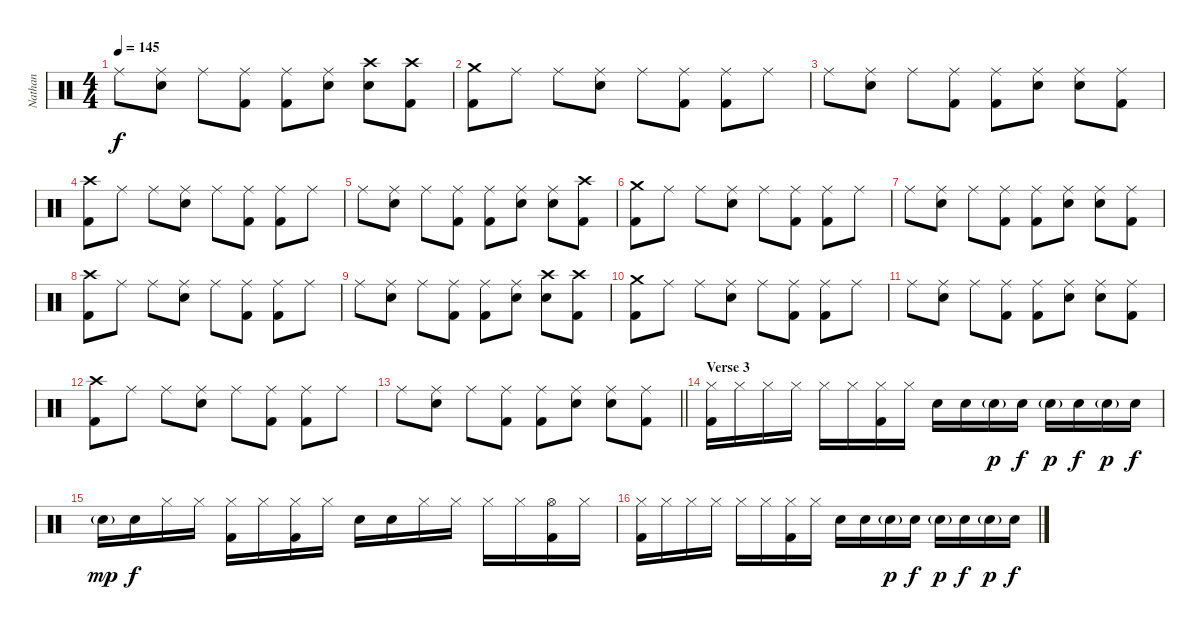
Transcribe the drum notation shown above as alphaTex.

\track ("Nathan" "Nathan") {instrument percussion}
\staff {score}
\articulation defaults
\ts (4 4)
\tempo 145
\clef neutral
\ks c "Ride (middle)".8{dy f}
("Ride (middle)" "Electric Snare (hit)").8 "Ride (middle)".8 ("Ride (middle)" "Kick (hit) 2").8 ("Ride (middle)" "Kick (hit) 2").8 ("Ride (middle)" "Electric Snare (hit)").8 ("Crash high (hit)" "Electric Snare (hit)").8 ("Crash high (hit)" "Kick (hit) 2").8 |
("Crash medium (hit)" "Kick (hit) 2").8 "Ride (middle)".8 "Ride (middle)".8 ("Ride (middle)" "Electric Snare (hit)").8 "Ride (middle)".8 ("Ride (middle)" "Kick (hit) 2").8 ("Ride (middle)" "Kick (hit) 2").8 "Ride (middle)".8 |
"Ride (middle)".8 ("Ride (middle)" "Electric Snare (hit)").8 "Ride (middle)".8 ("Ride (middle)" "Kick (hit) 2").8 ("Ride (middle)" "Kick (hit) 2").8 ("Ride (middle)" "Electric Snare (hit)").8 ("Ride (middle)" "Electric Snare (hit)").8 ("Ride (middle)" "Kick (hit) 2").8 |
("Crash high (hit)" "Kick (hit) 2").8 "Ride (middle)".8 "Ride (middle)".8 ("Ride (middle)" "Electric Snare (hit)").8 "Ride (middle)".8 ("Ride (middle)" "Kick (hit) 2").8 ("Ride (middle)" "Kick (hit) 2").8 "Ride (middle)".8 |
"Ride (middle)".8 ("Ride (middle)" "Electric Snare (hit)").8 "Ride (middle)".8 ("Ride (middle)" "Kick (hit) 2").8 ("Ride (middle)" "Kick (hit) 2").8 ("Ride (middle)" "Electric Snare (hit)").8 ("Ride (middle)" "Electric Snare (hit)").8 ("Crash high (hit)" "Kick (hit) 2").8 |
("Crash medium (hit)" "Kick (hit) 2").8 "Ride (middle)".8 "Ride (middle)".8 ("Ride (middle)" "Electric Snare (hit)").8 "Ride (middle)".8 ("Ride (middle)" "Kick (hit) 2").8 ("Ride (middle)" "Kick (hit) 2").8 "Ride (middle)".8 |
"Ride (middle)".8 ("Ride (middle)" "Electric Snare (hit)").8 "Ride (middle)".8 ("Ride (middle)" "Kick (hit) 2").8 ("Ride (middle)" "Kick (hit) 2").8 ("Ride (middle)" "Electric Snare (hit)").8 ("Ride (middle)" "Electric Snare (hit)").8 ("Ride (middle)" "Kick (hit) 2").8 |
("Crash high (hit)" "Kick (hit) 2").8 "Ride (middle)".8 "Ride (middle)".8 ("Ride (middle)" "Electric Snare (hit)").8 "Ride (middle)".8 ("Ride (middle)" "Kick (hit) 2").8 ("Ride (middle)" "Kick (hit) 2").8 "Ride (middle)".8 |
"Ride (middle)".8 ("Ride (middle)" "Electric Snare (hit)").8 "Ride (middle)".8 ("Ride (middle)" "Kick (hit) 2").8 ("Ride (middle)" "Kick (hit) 2").8 ("Ride (middle)" "Electric Snare (hit)").8 ("Crash high (hit)" "Electric Snare (hit)").8 ("Crash high (hit)" "Kick (hit) 2").8 |
("Crash medium (hit)" "Kick (hit) 2").8 "Ride (middle)".8 "Ride (middle)".8 ("Ride (middle)" "Electric Snare (hit)").8 "Ride (middle)".8 ("Ride (middle)" "Kick (hit) 2").8 ("Ride (middle)" "Kick (hit) 2").8 "Ride (middle)".8 |
"Ride (middle)".8 ("Ride (middle)" "Electric Snare (hit)").8 "Ride (middle)".8 ("Ride (middle)" "Kick (hit) 2").8 ("Ride (middle)" "Kick (hit) 2").8 ("Ride (middle)" "Electric Snare (hit)").8 ("Ride (middle)" "Electric Snare (hit)").8 ("Ride (middle)" "Kick (hit) 2").8 |
("Crash high (hit)" "Kick (hit) 2").8 "Ride (middle)".8 "Ride (middle)".8 ("Ride (middle)" "Electric Snare (hit)").8 "Ride (middle)".8 ("Ride (middle)" "Kick (hit) 2").8 ("Ride (middle)" "Kick (hit) 2").8 "Ride (middle)".8 |
\barLineRight lightlight "Ride (middle)".8
("Ride (middle)" "Electric Snare (hit)").8 "Ride (middle)".8 ("Ride (middle)" "Kick (hit) 2").8 ("Ride (middle)" "Kick (hit) 2").8 ("Ride (middle)" "Electric Snare (hit)").8 ("Ride (middle)" "Electric Snare (hit)").8 ("Ride (middle)" "Kick (hit) 2").8 |
\section ("" "Verse 3")
("Hi-Hat (closed)" "Kick (hit) 2").16 "Hi-Hat (closed)".16 "Hi-Hat (closed)".16 "Hi-Hat (closed)".16 "Hi-Hat (closed)".16 "Hi-Hat (closed)".16 ("Hi-Hat (closed)" "Kick (hit) 2").16 "Hi-Hat (closed)".16 "Electric Snare (hit)".16 "Electric Snare (hit)".16 "Electric Snare (hit)"{g}.16{dy p} "Electric Snare (hit)".16{dy f} "Electric Snare (hit)"{g}.16{dy p} "Electric Snare (hit)".16{dy f} "Electric Snare (hit)"{g}.16{dy p} "Electric Snare (hit)".16{dy f} |
"Electric Snare (hit)"{g}.16{dy mp} "Electric Snare (hit)".16{dy f} "Hi-Hat (closed)".16 "Hi-Hat (closed)".16 ("Hi-Hat (closed)" "Kick (hit) 2").16 "Hi-Hat (closed)".16 ("Hi-Hat (closed)" "Kick (hit) 2").16 "Hi-Hat (closed)".16 "Electric Snare (hit)".16 "Electric Snare (hit)".16 "Hi-Hat (closed)".16 "Hi-Hat (closed)".16 "Hi-Hat (closed)".16 "Hi-Hat (closed)".16 ("Hi-Hat (open)" "Kick (hit) 2").16 "Hi-Hat (closed)".16 |
("Hi-Hat (closed)" "Kick (hit) 2").16 "Hi-Hat (closed)".16 "Hi-Hat (closed)".16 "Hi-Hat (closed)".16 "Hi-Hat (closed)".16 "Hi-Hat (closed)".16 ("Hi-Hat (closed)" "Kick (hit) 2").16 "Hi-Hat (closed)".16 "Electric Snare (hit)".16 "Electric Snare (hit)".16 "Electric Snare (hit)"{g}.16{dy p} "Electric Snare (hit)".16{dy f} "Electric Snare (hit)"{g}.16{dy p} "Electric Snare (hit)".16{dy f} "Electric Snare (hit)"{g}.16{dy p} "Electric Snare (hit)".16{dy f}
